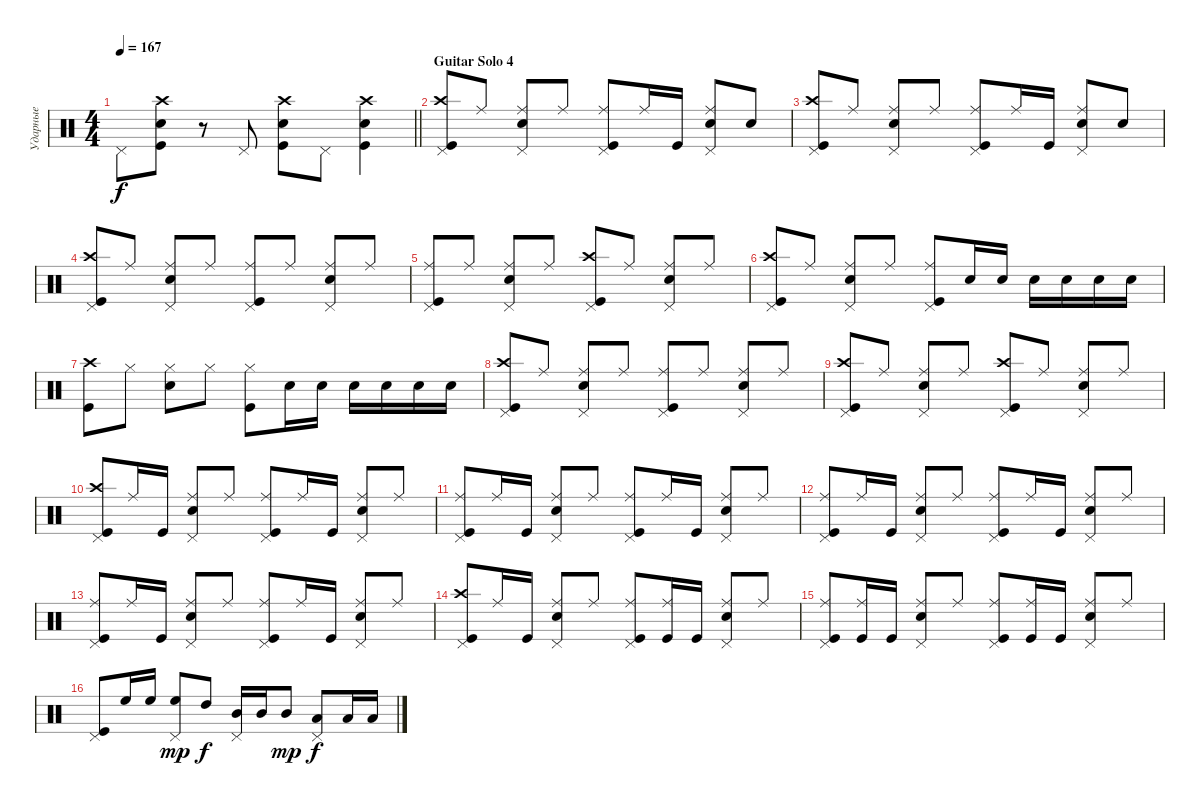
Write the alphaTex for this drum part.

\track ("Ударные" "Ударные") {instrument percussion}
\staff {score}
\articulation defaults
\ts (4 4)
\tempo 167
\clef neutral
\barLineRight lightlight
\ks aminor "Pedal Hi-Hat (hit)".8{dy f}
("Crash high (hit)" "Kick (hit)" "Snare (hit) 2").8 r.8 "Pedal Hi-Hat (hit)".8 ("Kick (hit)" "Snare (hit) 2" "Crash high (hit)").8 "Pedal Hi-Hat (hit)".8 ("Kick (hit)" "Snare (hit) 2" "Crash high (hit)").4 |
\section ("" "Guitar Solo 4")
("Kick (hit)" "Crash high (hit)" "Pedal Hi-Hat (hit)").8 "Ride (middle)".8 ("Snare (hit) 2" "Ride (middle)" "Pedal Hi-Hat (hit)").8 "Ride (middle)".8 ("Ride (middle)" "Kick (hit)" "Pedal Hi-Hat (hit)").8 "Ride (middle)".16 "Kick (hit)".16 ("Snare (hit) 2" "Ride (middle)" "Pedal Hi-Hat (hit)").8 "Snare (hit) 2".8 |
("Kick (hit)" "Crash high (hit)" "Pedal Hi-Hat (hit)").8 "Ride (middle)".8 ("Snare (hit) 2" "Ride (middle)" "Pedal Hi-Hat (hit)").8 "Ride (middle)".8 ("Ride (middle)" "Kick (hit)" "Pedal Hi-Hat (hit)").8 "Ride (middle)".16 "Kick (hit)".16 ("Snare (hit) 2" "Ride (middle)" "Pedal Hi-Hat (hit)").8 "Snare (hit) 2".8 |
("Kick (hit)" "Crash high (hit)" "Pedal Hi-Hat (hit)").8 "Ride (middle)".8 ("Snare (hit) 2" "Ride (middle)" "Pedal Hi-Hat (hit)").8 "Ride (middle)".8 ("Ride (middle)" "Kick (hit)" "Pedal Hi-Hat (hit)").8 "Ride (middle)".8 ("Snare (hit) 2" "Ride (middle)" "Pedal Hi-Hat (hit)").8 "Ride (middle)".8 |
("Pedal Hi-Hat (hit)" "Kick (hit)" "Ride (middle)").8 "Ride (middle)".8 ("Snare (hit) 2" "Ride (middle)" "Pedal Hi-Hat (hit)").8 "Ride (middle)".8 ("Crash high (hit)" "Kick (hit)" "Pedal Hi-Hat (hit)").8 "Ride (middle)".8 ("Ride (middle)" "Snare (hit) 2" "Pedal Hi-Hat (hit)").8 "Ride (middle)".8 |
("Kick (hit)" "Crash high (hit)" "Pedal Hi-Hat (hit)").8 "Ride (middle)".8 ("Snare (hit) 2" "Ride (middle)" "Pedal Hi-Hat (hit)").8 "Ride (middle)".8 ("Pedal Hi-Hat (hit)" "Kick (hit)" "Ride (middle)").8 "Snare (hit) 2".16 "Snare (hit) 2".16 "Snare (hit) 2".16 "Snare (hit) 2".16 "Snare (hit) 2".16 "Snare (hit) 2".16 |
("Crash high (hit)" "Kick (hit)").8 "Hi-Hat (closed)".8 ("Hi-Hat (closed)" "Snare (hit) 2").8 "Hi-Hat (closed)".8 ("Hi-Hat (closed)" "Kick (hit)").8 "Snare (hit) 2".16 "Snare (hit) 2".16 "Snare (hit) 2".16 "Snare (hit) 2".16 "Snare (hit) 2".16 "Snare (hit) 2".16 |
("Kick (hit)" "Crash high (hit)" "Pedal Hi-Hat (hit)").8 "Ride (middle)".8 ("Snare (hit) 2" "Ride (middle)" "Pedal Hi-Hat (hit)").8 "Ride (middle)".8 ("Ride (middle)" "Kick (hit)" "Pedal Hi-Hat (hit)").8 "Ride (middle)".8 ("Snare (hit) 2" "Ride (middle)" "Pedal Hi-Hat (hit)").8 "Ride (middle)".8 |
("Pedal Hi-Hat (hit)" "Kick (hit)" "Crash high (hit)").8 "Ride (middle)".8 ("Snare (hit) 2" "Ride (middle)" "Pedal Hi-Hat (hit)").8 "Ride (middle)".8 ("Crash high (hit)" "Kick (hit)" "Pedal Hi-Hat (hit)").8 "Ride (middle)".8 ("Ride (middle)" "Snare (hit) 2" "Pedal Hi-Hat (hit)").8 "Ride (middle)".8 |
("Kick (hit)" "Pedal Hi-Hat (hit)" "Crash high (hit)").8 "Ride (middle)".16 "Kick (hit)".16 ("Ride (middle)" "Snare (hit) 2" "Pedal Hi-Hat (hit)").8 "Ride (middle)".8 ("Ride (middle)" "Kick (hit)" "Pedal Hi-Hat (hit)").8 "Ride (middle)".16 "Kick (hit)".16 ("Ride (middle)" "Snare (hit) 2" "Pedal Hi-Hat (hit)").8 "Ride (middle)".8 |
("Kick (hit)" "Ride (middle)" "Pedal Hi-Hat (hit)").8 "Ride (middle)".16 "Kick (hit)".16 ("Snare (hit) 2" "Ride (middle)" "Pedal Hi-Hat (hit)").8 "Ride (middle)".8 ("Ride (middle)" "Kick (hit)" "Pedal Hi-Hat (hit)").8 "Ride (middle)".16 "Kick (hit)".16 ("Snare (hit) 2" "Ride (middle)" "Pedal Hi-Hat (hit)").8 "Ride (middle)".8 |
("Kick (hit)" "Pedal Hi-Hat (hit)" "Ride (middle)").8 "Ride (middle)".16 "Kick (hit)".16 ("Ride (middle)" "Snare (hit) 2" "Pedal Hi-Hat (hit)").8 "Ride (middle)".8 ("Ride (middle)" "Kick (hit)" "Pedal Hi-Hat (hit)").8 "Ride (middle)".16 "Kick (hit)".16 ("Ride (middle)" "Snare (hit) 2" "Pedal Hi-Hat (hit)").8 "Ride (middle)".8 |
("Kick (hit)" "Ride (middle)" "Pedal Hi-Hat (hit)").8 "Ride (middle)".16 "Kick (hit)".16 ("Snare (hit) 2" "Ride (middle)" "Pedal Hi-Hat (hit)").8 "Ride (middle)".8 ("Ride (middle)" "Kick (hit)" "Pedal Hi-Hat (hit)").8 "Ride (middle)".16 "Kick (hit)".16 ("Snare (hit) 2" "Ride (middle)" "Pedal Hi-Hat (hit)").8 "Ride (middle)".8 |
("Kick (hit)" "Pedal Hi-Hat (hit)" "Crash high (hit)").8 "Ride (middle)".16 "Kick (hit)".16 ("Ride (middle)" "Snare (hit) 2" "Pedal Hi-Hat (hit)").8 "Ride (middle)".8 ("Ride (middle)" "Kick (hit)" "Pedal Hi-Hat (hit)").8 ("Ride (middle)" "Kick (hit)").16 "Kick (hit)".16 ("Ride (middle)" "Snare (hit) 2" "Pedal Hi-Hat (hit)").8 "Ride (middle)".8 |
("Kick (hit)" "Ride (middle)" "Pedal Hi-Hat (hit)").8 ("Ride (middle)" "Kick (hit)").16 "Kick (hit)".16 ("Snare (hit) 2" "Ride (middle)" "Pedal Hi-Hat (hit)").8 "Ride (middle)".8 ("Ride (middle)" "Kick (hit)" "Pedal Hi-Hat (hit)").8 ("Ride (middle)" "Kick (hit)").16 "Kick (hit)".16 ("Snare (hit) 2" "Ride (middle)" "Pedal Hi-Hat (hit)").8 "Ride (middle)".8 |
("Kick (hit)" "Pedal Hi-Hat (hit)").8 "High Floor Tom (hit)".16 "High Floor Tom (hit)".16 ("High Floor Tom (hit)" "Pedal Hi-Hat (hit)").8{dy mp} "High Tom (hit)".8{dy f} ("Pedal Hi-Hat (hit)" "Mid Tom (hit)").16 "Mid Tom (hit)".16 "Mid Tom (hit)".8{dy mp} ("Pedal Hi-Hat (hit)" "Low Tom (hit)").8{dy f} "Low Tom (hit)".16 "Low Tom (hit)".16
